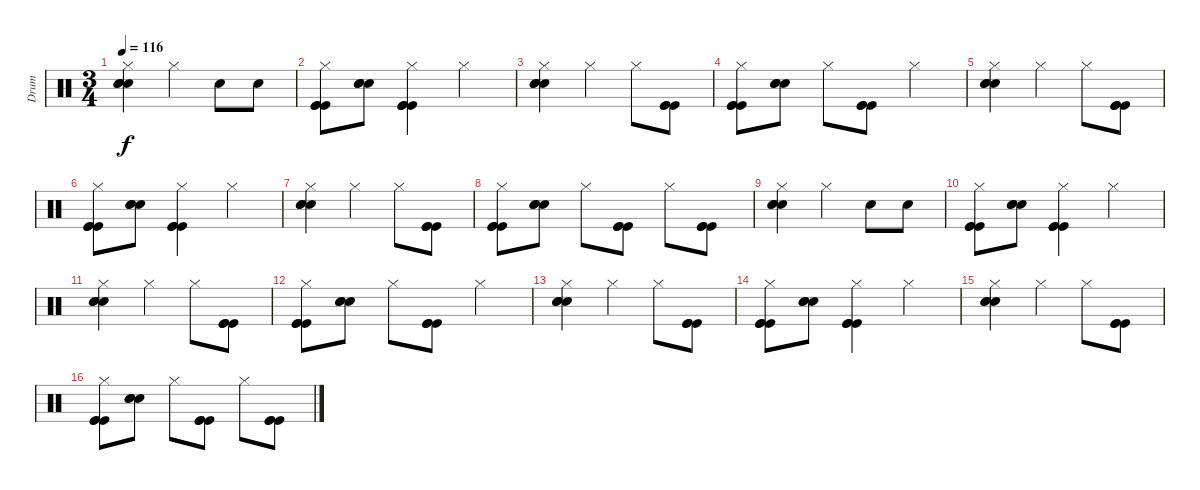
\track ("Drum" "Drum") {instrument percussion}
\staff {score}
\articulation defaults
\ts (3 4)
\tempo 116
\clef neutral
\ks c
("Hi-Hat (closed)" "Electric Snare (hit)" "Electric Snare (hit)" "Electric Snare (hit)").4{dy f} "Hi-Hat (closed)".4 "Electric Snare (hit)".8 "Electric Snare (hit)".8 |
("Hi-Hat (closed)" "Kick (hit)" "Kick (hit)" "Kick (hit)").8 ("Electric Snare (hit)" "Electric Snare (hit)" "Electric Snare (hit)").8 ("Hi-Hat (closed)" "Kick (hit)" "Kick (hit)" "Kick (hit)").4 "Hi-Hat (closed)".4 |
("Hi-Hat (closed)" "Electric Snare (hit)" "Electric Snare (hit)" "Electric Snare (hit)").4 "Hi-Hat (closed)".4 "Hi-Hat (closed)".8 ("Kick (hit)" "Kick (hit)" "Kick (hit)").8 |
("Hi-Hat (closed)" "Kick (hit)" "Kick (hit)" "Kick (hit)").8 ("Electric Snare (hit)" "Electric Snare (hit)" "Electric Snare (hit)").8 "Hi-Hat (closed)".8 ("Kick (hit)" "Kick (hit)" "Kick (hit)").8 "Hi-Hat (closed)".4 |
("Hi-Hat (closed)" "Electric Snare (hit)" "Electric Snare (hit)" "Electric Snare (hit)").4 "Hi-Hat (closed)".4 "Hi-Hat (closed)".8 ("Kick (hit)" "Kick (hit)" "Kick (hit)").8 |
("Hi-Hat (closed)" "Kick (hit)" "Kick (hit)" "Kick (hit)").8 ("Electric Snare (hit)" "Electric Snare (hit)" "Electric Snare (hit)").8 ("Hi-Hat (closed)" "Kick (hit)" "Kick (hit)" "Kick (hit)").4 "Hi-Hat (closed)".4 |
("Hi-Hat (closed)" "Electric Snare (hit)" "Electric Snare (hit)" "Electric Snare (hit)").4 "Hi-Hat (closed)".4 "Hi-Hat (closed)".8 ("Kick (hit)" "Kick (hit)" "Kick (hit)").8 |
("Hi-Hat (closed)" "Kick (hit)" "Kick (hit)" "Kick (hit)").8 ("Electric Snare (hit)" "Electric Snare (hit)" "Electric Snare (hit)").8 "Hi-Hat (closed)".8 ("Kick (hit)" "Kick (hit)" "Kick (hit)").8 "Hi-Hat (closed)".8 ("Kick (hit)" "Kick (hit)" "Kick (hit)").8 |
("Hi-Hat (closed)" "Electric Snare (hit)" "Electric Snare (hit)" "Electric Snare (hit)").4 "Hi-Hat (closed)".4 "Electric Snare (hit)".8 "Electric Snare (hit)".8 |
("Hi-Hat (closed)" "Kick (hit)" "Kick (hit)" "Kick (hit)").8 ("Electric Snare (hit)" "Electric Snare (hit)" "Electric Snare (hit)").8 ("Hi-Hat (closed)" "Kick (hit)" "Kick (hit)" "Kick (hit)").4 "Hi-Hat (closed)".4 |
("Hi-Hat (closed)" "Electric Snare (hit)" "Electric Snare (hit)" "Electric Snare (hit)").4 "Hi-Hat (closed)".4 "Hi-Hat (closed)".8 ("Kick (hit)" "Kick (hit)" "Kick (hit)").8 |
("Hi-Hat (closed)" "Kick (hit)" "Kick (hit)" "Kick (hit)").8 ("Electric Snare (hit)" "Electric Snare (hit)" "Electric Snare (hit)").8 "Hi-Hat (closed)".8 ("Kick (hit)" "Kick (hit)" "Kick (hit)").8 "Hi-Hat (closed)".4 |
("Hi-Hat (closed)" "Electric Snare (hit)" "Electric Snare (hit)" "Electric Snare (hit)").4 "Hi-Hat (closed)".4 "Hi-Hat (closed)".8 ("Kick (hit)" "Kick (hit)" "Kick (hit)").8 |
("Hi-Hat (closed)" "Kick (hit)" "Kick (hit)" "Kick (hit)").8 ("Electric Snare (hit)" "Electric Snare (hit)" "Electric Snare (hit)").8 ("Hi-Hat (closed)" "Kick (hit)" "Kick (hit)" "Kick (hit)").4 "Hi-Hat (closed)".4 |
("Hi-Hat (closed)" "Electric Snare (hit)" "Electric Snare (hit)" "Electric Snare (hit)").4 "Hi-Hat (closed)".4 "Hi-Hat (closed)".8 ("Kick (hit)" "Kick (hit)" "Kick (hit)").8 |
("Hi-Hat (closed)" "Kick (hit)" "Kick (hit)" "Kick (hit)").8 ("Electric Snare (hit)" "Electric Snare (hit)" "Electric Snare (hit)").8 "Hi-Hat (closed)".8 ("Kick (hit)" "Kick (hit)" "Kick (hit)").8 "Hi-Hat (closed)".8 ("Kick (hit)" "Kick (hit)" "Kick (hit)").8
